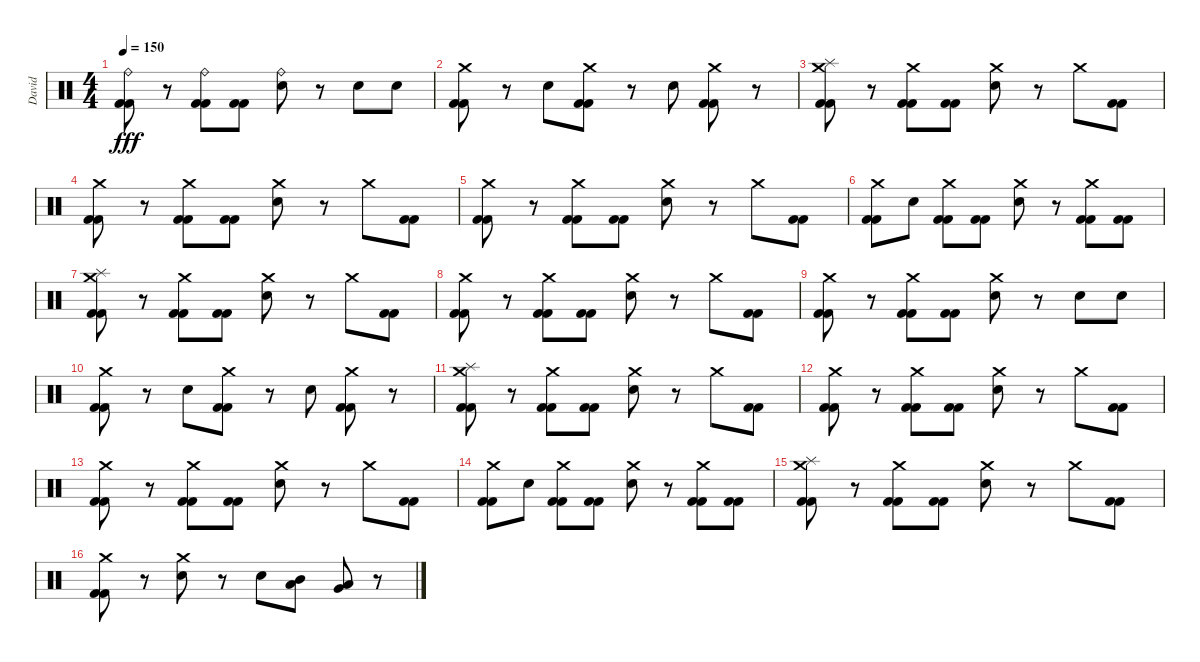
\track ("David" "David") {instrument percussion}
\staff {score}
\articulation defaults
\ts (4 4)
\tempo 150
\clef neutral
\ks c
("Ride (bell)" "Kick (hit) 2" "Kick (hit) 2").8{dy fff} r.8 ("Ride (bell)" "Kick (hit) 2" "Kick (hit) 2").8 ("Kick (hit) 2" "Kick (hit) 2").8 ("Ride (bell)" "Electric Snare (hit)").8 r.8 "Electric Snare (hit)".8 "Electric Snare (hit)".8 |
("Crash medium (hit)" "Kick (hit) 2" "Kick (hit) 2").8 r.8 "Electric Snare (hit)".8 ("Crash medium (hit)" "Kick (hit) 2" "Kick (hit) 2").8 r.8 "Electric Snare (hit)".8 ("Crash medium (hit)" "Kick (hit) 2" "Kick (hit) 2").8 r.8 |
("Splash (hit)" "Crash medium (hit)" "Kick (hit) 2" "Kick (hit) 2").8 r.8 ("Crash medium (hit)" "Kick (hit) 2" "Kick (hit) 2").8 ("Kick (hit) 2" "Kick (hit) 2").8 ("Crash medium (hit)" "Electric Snare (hit)").8 r.8 "Crash medium (hit)".8 ("Kick (hit) 2" "Kick (hit) 2").8 |
("Crash medium (hit)" "Kick (hit) 2" "Kick (hit) 2").8 r.8 ("Crash medium (hit)" "Kick (hit) 2" "Kick (hit) 2").8 ("Kick (hit) 2" "Kick (hit) 2").8 ("Crash medium (hit)" "Electric Snare (hit)").8 r.8 "Crash medium (hit)".8 ("Kick (hit) 2" "Kick (hit) 2").8 |
("Crash medium (hit)" "Kick (hit) 2" "Kick (hit) 2").8 r.8 ("Crash medium (hit)" "Kick (hit) 2" "Kick (hit) 2").8 ("Kick (hit) 2" "Kick (hit) 2").8 ("Crash medium (hit)" "Electric Snare (hit)").8 r.8 "Crash medium (hit)".8 ("Kick (hit) 2" "Kick (hit) 2").8 |
("Crash medium (hit)" "Kick (hit) 2" "Kick (hit) 2").8 "Electric Snare (hit)".8 ("Crash medium (hit)" "Kick (hit) 2" "Kick (hit) 2").8 ("Kick (hit) 2" "Kick (hit) 2").8 ("Crash medium (hit)" "Electric Snare (hit)").8 r.8 ("Crash medium (hit)" "Kick (hit) 2" "Kick (hit) 2").8 ("Kick (hit) 2" "Kick (hit) 2").8 |
("Splash (hit)" "Crash medium (hit)" "Kick (hit) 2" "Kick (hit) 2").8 r.8 ("Crash medium (hit)" "Kick (hit) 2" "Kick (hit) 2").8 ("Kick (hit) 2" "Kick (hit) 2").8 ("Crash medium (hit)" "Electric Snare (hit)").8 r.8 "Crash medium (hit)".8 ("Kick (hit) 2" "Kick (hit) 2").8 |
("Crash medium (hit)" "Kick (hit) 2" "Kick (hit) 2").8 r.8 ("Crash medium (hit)" "Kick (hit) 2" "Kick (hit) 2").8 ("Kick (hit) 2" "Kick (hit) 2").8 ("Crash medium (hit)" "Electric Snare (hit)").8 r.8 "Crash medium (hit)".8 ("Kick (hit) 2" "Kick (hit) 2").8 |
("Crash medium (hit)" "Kick (hit) 2" "Kick (hit) 2").8 r.8 ("Crash medium (hit)" "Kick (hit) 2" "Kick (hit) 2").8 ("Kick (hit) 2" "Kick (hit) 2").8 ("Crash medium (hit)" "Electric Snare (hit)").8 r.8 "Electric Snare (hit)".8 "Electric Snare (hit)".8 |
("Crash medium (hit)" "Kick (hit) 2" "Kick (hit) 2").8 r.8 "Electric Snare (hit)".8 ("Crash medium (hit)" "Kick (hit) 2" "Kick (hit) 2").8 r.8 "Electric Snare (hit)".8 ("Crash medium (hit)" "Kick (hit) 2" "Kick (hit) 2").8 r.8 |
("Splash (hit)" "Crash medium (hit)" "Kick (hit) 2" "Kick (hit) 2").8 r.8 ("Crash medium (hit)" "Kick (hit) 2" "Kick (hit) 2").8 ("Kick (hit) 2" "Kick (hit) 2").8 ("Crash medium (hit)" "Electric Snare (hit)").8 r.8 "Crash medium (hit)".8 ("Kick (hit) 2" "Kick (hit) 2").8 |
("Crash medium (hit)" "Kick (hit) 2" "Kick (hit) 2").8 r.8 ("Crash medium (hit)" "Kick (hit) 2" "Kick (hit) 2").8 ("Kick (hit) 2" "Kick (hit) 2").8 ("Crash medium (hit)" "Electric Snare (hit)").8 r.8 "Crash medium (hit)".8 ("Kick (hit) 2" "Kick (hit) 2").8 |
("Crash medium (hit)" "Kick (hit) 2" "Kick (hit) 2").8 r.8 ("Crash medium (hit)" "Kick (hit) 2" "Kick (hit) 2").8 ("Kick (hit) 2" "Kick (hit) 2").8 ("Crash medium (hit)" "Electric Snare (hit)").8 r.8 "Crash medium (hit)".8 ("Kick (hit) 2" "Kick (hit) 2").8 |
("Crash medium (hit)" "Kick (hit) 2" "Kick (hit) 2").8 "Electric Snare (hit)".8 ("Crash medium (hit)" "Kick (hit) 2" "Kick (hit) 2").8 ("Kick (hit) 2" "Kick (hit) 2").8 ("Crash medium (hit)" "Electric Snare (hit)").8 r.8 ("Crash medium (hit)" "Kick (hit) 2" "Kick (hit) 2").8 ("Kick (hit) 2" "Kick (hit) 2").8 |
("Splash (hit)" "Crash medium (hit)" "Kick (hit) 2" "Kick (hit) 2").8 r.8 ("Crash medium (hit)" "Kick (hit) 2" "Kick (hit) 2").8 ("Kick (hit) 2" "Kick (hit) 2").8 ("Crash medium (hit)" "Electric Snare (hit)").8 r.8 "Crash medium (hit)".8 ("Kick (hit) 2" "Kick (hit) 2").8 |
("Crash medium (hit)" "Kick (hit) 2" "Kick (hit) 2").8 r.8 ("Crash medium (hit)" "Electric Snare (hit)").8 r.8 "Electric Snare (hit)".8 ("Mid Tom (hit)" "Low Tom (hit)").8 ("Low Floor Tom (hit)" "Very Low Tom (hit)").8 r.8
